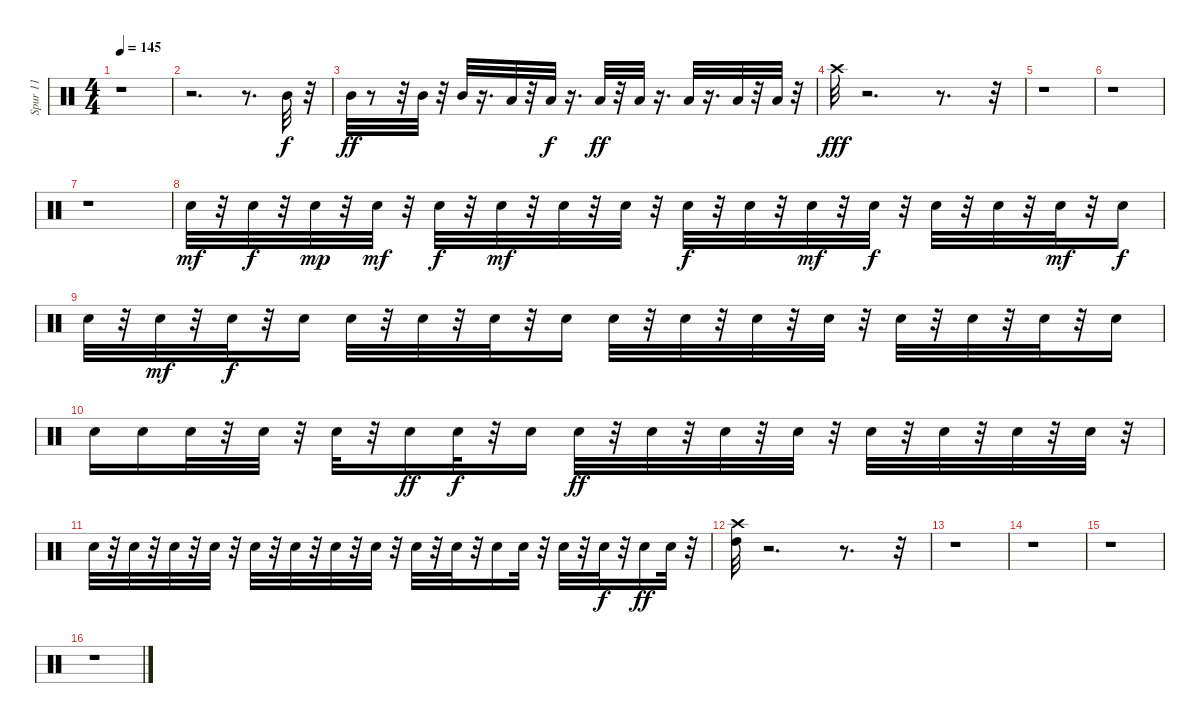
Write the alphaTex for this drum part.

\track ("Spur 11" "Spur 11") {instrument percussion}
\staff {score}
\articulation defaults
\ts (4 4)
\tempo 145
\clef neutral
\ks c
r.1{dy ff} |
r.2{d} r.8{d} "Mid Tom (hit)".32{dy f} r.32 |
"Mid Tom (hit)".32{dy ff} r.8 r.32 "Mid Tom (hit)".32 r.32 "Mid Tom (hit)".32 r.16{d} "Low Tom (hit)".32 r.32 "Low Tom (hit)".32{dy f} r.16{d} "Low Tom (hit)".32{dy ff} r.32 "Low Tom (hit)".32 r.16{d} "Low Tom (hit)".32 r.16{d} "Low Tom (hit)".32 r.32 "Low Tom (hit)".32 r.32 |
"Crash high (hit)".32{dy fff} r.2{d} r.8{d} r.32 |
r.1 |
r.1 |
r.1 |
"Electric Snare (hit)".32{dy mf} r.32 "Electric Snare (hit)".32{dy f} r.32 "Electric Snare (hit)".32{dy mp} r.32 "Electric Snare (hit)".32{dy mf} r.32 "Electric Snare (hit)".32{dy f} r.32 "Electric Snare (hit)".32{dy mf} r.32 "Electric Snare (hit)".32 r.32 "Electric Snare (hit)".32 r.32 "Electric Snare (hit)".32{dy f} r.32 "Electric Snare (hit)".32 r.32 "Electric Snare (hit)".32{dy mf} r.32 "Electric Snare (hit)".32{dy f} r.32 "Electric Snare (hit)".32 r.32 "Electric Snare (hit)".32 r.32 "Electric Snare (hit)".32{dy mf} r.32 "Electric Snare (hit)".16{dy f} |
"Electric Snare (hit)".32 r.32 "Electric Snare (hit)".32{dy mf} r.32 "Electric Snare (hit)".32{dy f} r.32 "Electric Snare (hit)".16 "Electric Snare (hit)".32 r.32 "Electric Snare (hit)".32 r.32 "Electric Snare (hit)".32 r.32 "Electric Snare (hit)".16 "Electric Snare (hit)".32 r.32 "Electric Snare (hit)".32 r.32 "Electric Snare (hit)".32 r.32 "Electric Snare (hit)".32 r.32 "Electric Snare (hit)".32 r.32 "Electric Snare (hit)".32 r.32 "Electric Snare (hit)".32 r.32 "Electric Snare (hit)".16 |
"Electric Snare (hit)".16 "Electric Snare (hit)".16 "Electric Snare (hit)".32 r.32 "Electric Snare (hit)".32 r.32 "Electric Snare (hit)".32 r.32 "Electric Snare (hit)".16{dy ff} "Electric Snare (hit)".32{dy f} r.32 "Electric Snare (hit)".16 "Electric Snare (hit)".32{dy ff} r.32 "Electric Snare (hit)".32 r.32 "Electric Snare (hit)".32 r.32 "Electric Snare (hit)".32 r.32 "Electric Snare (hit)".32 r.32 "Electric Snare (hit)".32 r.32 "Electric Snare (hit)".32 r.32 "Electric Snare (hit)".32 r.32 |
"Electric Snare (hit)".32 r.32 "Electric Snare (hit)".32 r.32 "Electric Snare (hit)".32 r.32 "Electric Snare (hit)".32 r.32 "Electric Snare (hit)".32 r.32 "Electric Snare (hit)".32 r.32 "Electric Snare (hit)".32 r.32 "Electric Snare (hit)".32 r.32 "Electric Snare (hit)".32 r.32 "Electric Snare (hit)".32 r.32 "Electric Snare (hit)".16 "Electric Snare (hit)".32 r.32 "Electric Snare (hit)".32 r.32 "Electric Snare (hit)".32{dy f} r.32 "Electric Snare (hit)".16{dy ff} "Electric Snare (hit)".32 r.32 |
("Crash high (hit)" "High Tom (hit)").32 r.2{d} r.8{d} r.32 |
r.1 |
r.1 |
r.1 |
r.1
